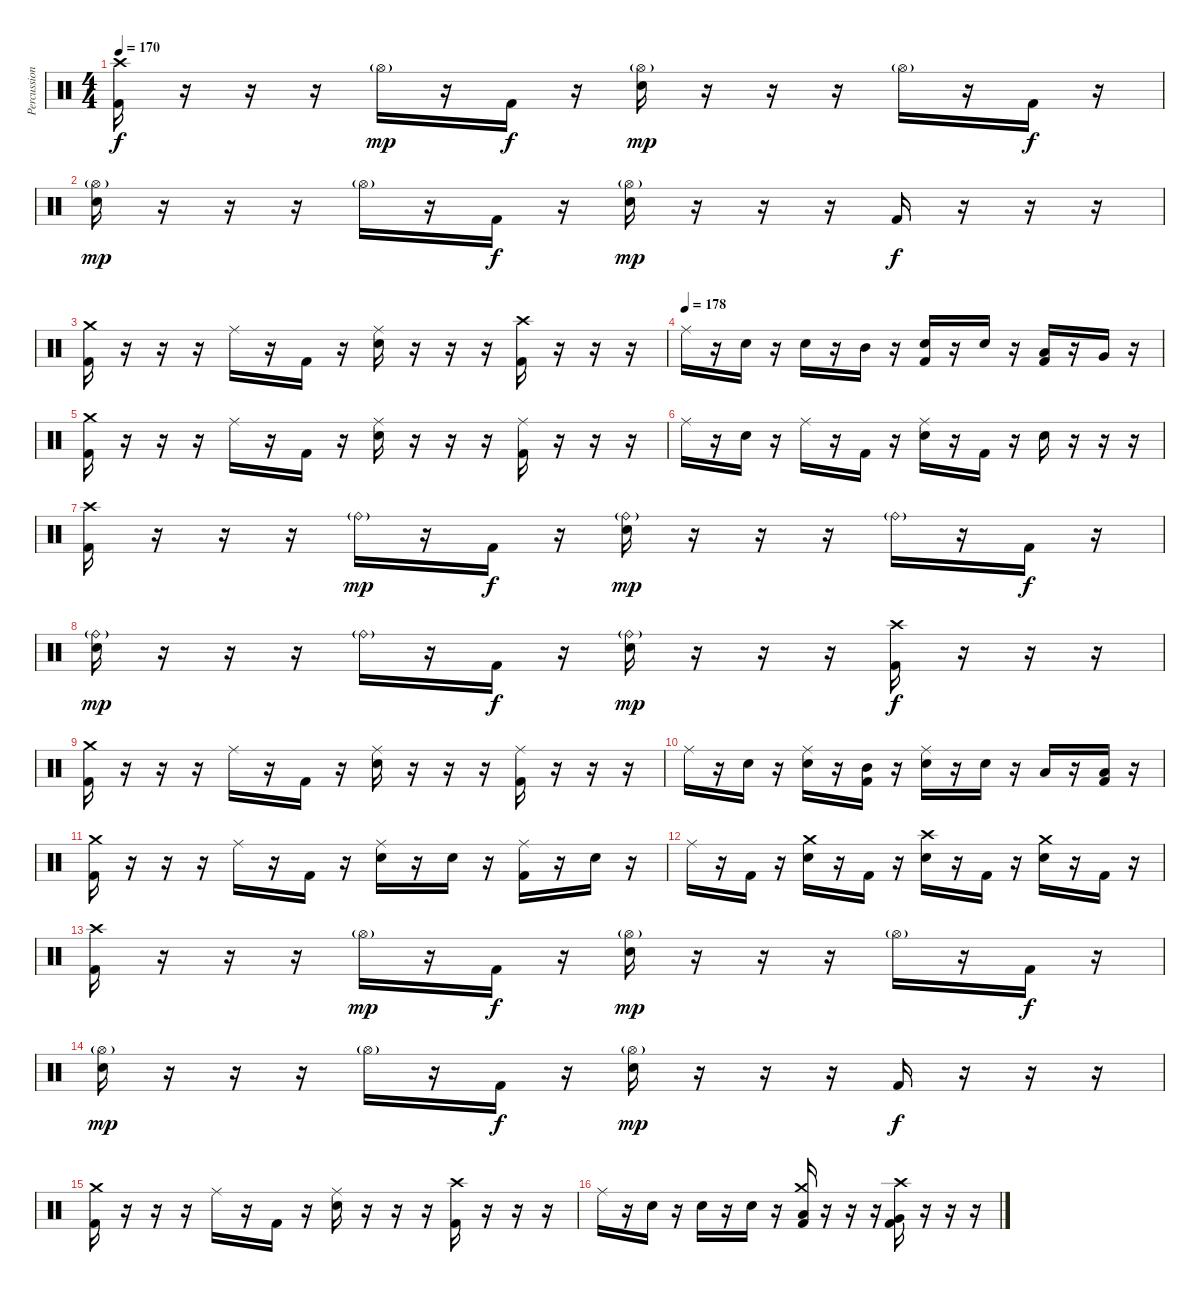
\track ("Percussion" "Percussion") {instrument percussion}
\staff {score}
\articulation defaults
\ts (4 4)
\tempo 170
\clef neutral
\ks c
("Crash high (hit)" "Kick (hit) 2").16{dy f} r.16 r.16 r.16 "Hi-Hat (open)"{g}.16{dy mp} r.16 "Kick (hit) 2".16{dy f} r.16 ("Hi-Hat (open)"{g} "Electric Snare (hit)").16{dy mp} r.16 r.16 r.16 "Hi-Hat (open)"{g}.16 r.16 "Kick (hit) 2".16{dy f} r.16 |
("Hi-Hat (open)"{g} "Electric Snare (hit)").16{dy mp} r.16 r.16 r.16 "Hi-Hat (open)"{g}.16 r.16 "Kick (hit) 2".16{dy f} r.16 ("Hi-Hat (open)"{g} "Electric Snare (hit)").16{dy mp} r.16 r.16 r.16 "Kick (hit) 2".16{dy f} r.16 r.16 r.16 |
("Crash medium (hit)" "Kick (hit) 2").16 r.16 r.16 r.16 "Ride (middle)".16 r.16 "Kick (hit) 2".16 r.16 ("Ride (middle)" "Electric Snare (hit)").16 r.16 r.16 r.16 ("Crash high (hit)" "Kick (hit) 2").16 r.16 r.16 r.16 |
\tempo (178)
"Ride (middle)".16 r.16 "Electric Snare (hit)".16 r.16 "Electric Snare (hit)".16 r.16 "Mid Tom (hit)".16 r.16 ("Electric Snare (hit)" "Kick (hit) 2").16 r.16 "Electric Snare (hit)".16 r.16 ("Low Tom (hit)" "Kick (hit) 2").16 r.16 "Very Low Tom (hit)".16 r.16 |
("Crash medium (hit)" "Kick (hit) 2").16 r.16 r.16 r.16 "Ride (middle)".16 r.16 "Kick (hit) 2".16 r.16 ("Ride (middle)" "Electric Snare (hit)").16 r.16 r.16 r.16 ("Ride (middle)" "Kick (hit) 2").16 r.16 r.16 r.16 |
"Ride (middle)".16 r.16 "Electric Snare (hit)".16 r.16 "Ride (middle)".16 r.16 "Kick (hit) 2".16 r.16 ("Ride (middle)" "Electric Snare (hit)").16 r.16 "Kick (hit) 2".16 r.16 "Electric Snare (hit)".16 r.16 r.16 r.16 |
("Crash high (hit)" "Kick (hit) 2").16 r.16 r.16 r.16 "Ride (bell)"{g}.16{dy mp} r.16 "Kick (hit) 2".16{dy f} r.16 ("Ride (bell)"{g} "Electric Snare (hit)").16{dy mp} r.16 r.16 r.16 "Ride (bell)"{g}.16 r.16 "Kick (hit) 2".16{dy f} r.16 |
("Ride (bell)"{g} "Electric Snare (hit)").16{dy mp} r.16 r.16 r.16 "Ride (bell)"{g}.16 r.16 "Kick (hit) 2".16{dy f} r.16 ("Ride (bell)"{g} "Electric Snare (hit)").16{dy mp} r.16 r.16 r.16 ("Crash high (hit)" "Kick (hit) 2").16{dy f} r.16 r.16 r.16 |
("Crash medium (hit)" "Kick (hit) 2").16 r.16 r.16 r.16 "Ride (middle)".16 r.16 "Kick (hit) 2".16 r.16 ("Ride (middle)" "Electric Snare (hit)").16 r.16 r.16 r.16 ("Ride (middle)" "Kick (hit) 2").16 r.16 r.16 r.16 |
"Ride (middle)".16 r.16 "Electric Snare (hit)".16 r.16 ("Ride (middle)" "Electric Snare (hit)").16 r.16 ("Mid Tom (hit)" "Kick (hit) 2").16 r.16 ("Ride (middle)" "Electric Snare (hit)").16 r.16 "Electric Snare (hit)".16 r.16 "Low Tom (hit)".16 r.16 ("Low Tom (hit)" "Kick (hit) 2").16 r.16 |
("Crash medium (hit)" "Kick (hit) 2").16 r.16 r.16 r.16 "Ride (middle)".16 r.16 "Kick (hit) 2".16 r.16 ("Ride (middle)" "Electric Snare (hit)").16 r.16 "Electric Snare (hit)".16 r.16 ("Ride (middle)" "Kick (hit) 2").16 r.16 "Electric Snare (hit)".16 r.16 |
"Ride (middle)".16 r.16 "Kick (hit) 2".16 r.16 ("Crash medium (hit)" "Electric Snare (hit)").16 r.16 "Kick (hit) 2".16 r.16 ("Crash high (hit)" "Electric Snare (hit)").16 r.16 "Kick (hit) 2".16 r.16 ("Crash medium (hit)" "Electric Snare (hit)").16 r.16 "Kick (hit) 2".16 r.16 |
("Crash high (hit)" "Kick (hit) 2").16 r.16 r.16 r.16 "Hi-Hat (open)"{g}.16{dy mp} r.16 "Kick (hit) 2".16{dy f} r.16 ("Hi-Hat (open)"{g} "Electric Snare (hit)").16{dy mp} r.16 r.16 r.16 "Hi-Hat (open)"{g}.16 r.16 "Kick (hit) 2".16{dy f} r.16 |
("Hi-Hat (open)"{g} "Electric Snare (hit)").16{dy mp} r.16 r.16 r.16 "Hi-Hat (open)"{g}.16 r.16 "Kick (hit) 2".16{dy f} r.16 ("Hi-Hat (open)"{g} "Electric Snare (hit)").16{dy mp} r.16 r.16 r.16 "Kick (hit) 2".16{dy f} r.16 r.16 r.16 |
("Crash medium (hit)" "Kick (hit) 2").16 r.16 r.16 r.16 "Ride (middle)".16 r.16 "Kick (hit) 2".16 r.16 ("Ride (middle)" "Electric Snare (hit)").16 r.16 r.16 r.16 ("Crash high (hit)" "Kick (hit) 2").16 r.16 r.16 r.16 |
"Ride (middle)".16 r.16 "Electric Snare (hit)".16 r.16 "Electric Snare (hit)".16 r.16 "Electric Snare (hit)".16 r.16 ("Crash medium (hit)" "Low Tom (hit)" "Kick (hit) 2").16 r.16 r.16 r.16 ("Crash high (hit)" "Very Low Tom (hit)" "Kick (hit) 2").16 r.16 r.16 r.16
